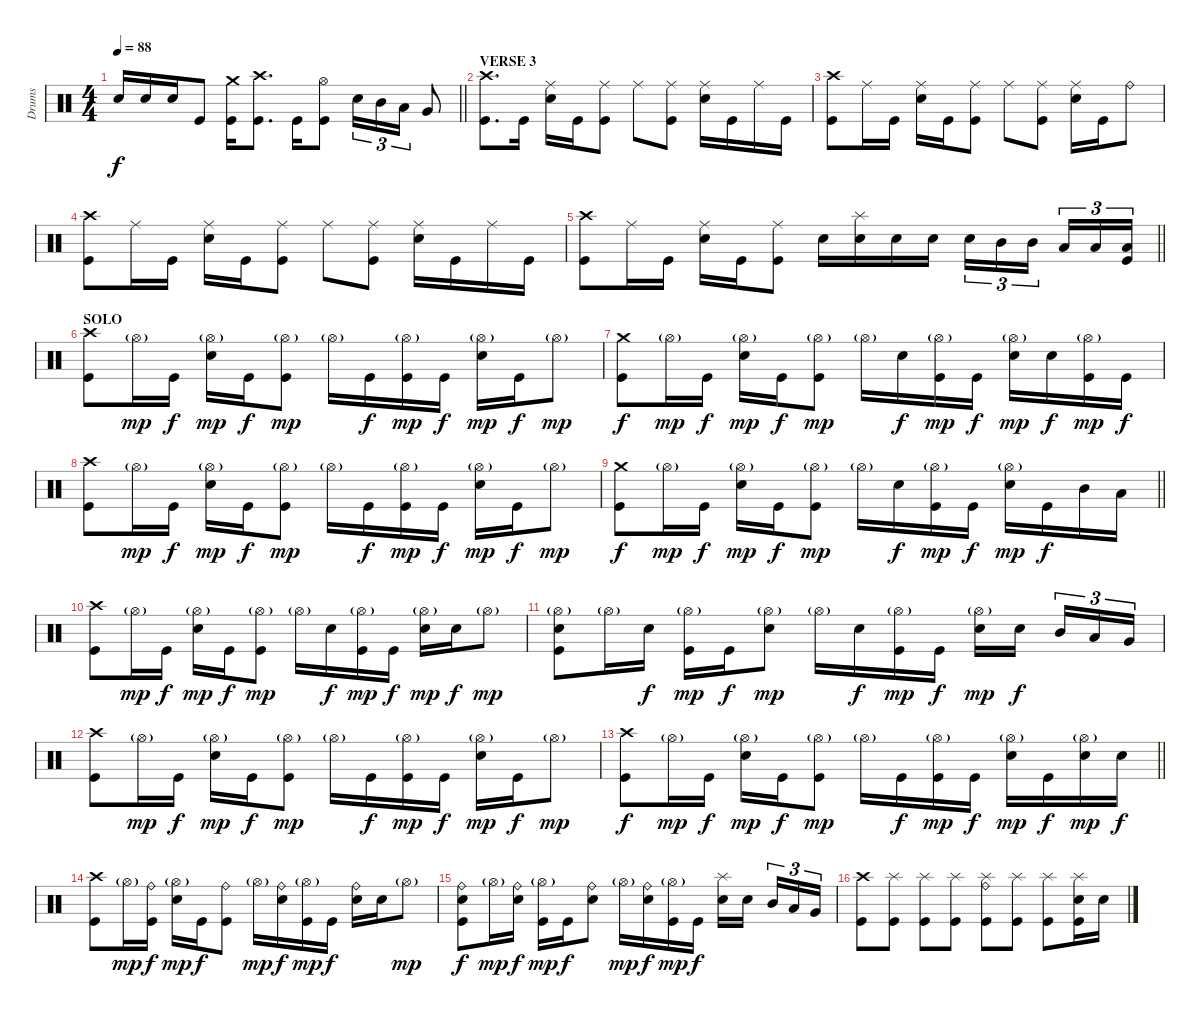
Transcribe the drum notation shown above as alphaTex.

\track ("Drums" "Drums") {instrument percussion}
\staff
\articulation defaults
\ts (4 4)
\tempo 88
\clef neutral
\barLineRight lightlight
\ks c "Electric Snare (hit)".16{dy f} "Electric Snare (hit)".16 "Electric Snare (hit)".16 "Kick (hit)".8
("Crash medium (hit)" "Kick (hit)").16 ("Crash high (hit)" "Kick (hit)").8{d} "Kick (hit)".16 ("Hi-Hat (open)" "Kick (hit)").8 "Electric Snare (hit)".16{tu (3 2)} "Mid Tom (hit)".16{tu (3 2)} "Low Tom (hit)".16{tu (3 2)} "Very Low Tom (hit)".8 |
\section ("" "VERSE 3")
("Crash high (hit)" "Kick (hit)").8{d} "Kick (hit)".16 ("Ride (middle)" "Electric Snare (hit)").16 "Kick (hit)".16 ("Ride (middle)" "Kick (hit)").8 "Ride (middle)".8 ("Ride (middle)" "Kick (hit)").8 ("Ride (middle)" "Electric Snare (hit)").16 "Kick (hit)".16 "Ride (middle)".16 "Kick (hit)".16 |
("Crash high (hit)" "Kick (hit)").8 "Ride (middle)".16 "Kick (hit)".16 ("Ride (middle)" "Electric Snare (hit)").16 "Kick (hit)".16 ("Ride (middle)" "Kick (hit)").8 "Ride (middle)".8 ("Ride (middle)" "Kick (hit)").8 ("Ride (middle)" "Electric Snare (hit)").16 "Kick (hit)".16 "Ride (bell)".8 |
("Crash high (hit)" "Kick (hit)").8 "Ride (middle)".16 "Kick (hit)".16 ("Ride (middle)" "Electric Snare (hit)").16 "Kick (hit)".16 ("Ride (middle)" "Kick (hit)").8 "Ride (middle)".8 ("Ride (middle)" "Kick (hit)").8 ("Ride (middle)" "Electric Snare (hit)").16 "Kick (hit)".16 "Ride (middle)".16 "Kick (hit)".16 |
\barLineRight lightlight
("Crash high (hit)" "Kick (hit)").8 "Ride (middle)".16 "Kick (hit)".16 ("Ride (middle)" "Electric Snare (hit)").16 "Kick (hit)".16 ("Ride (middle)" "Kick (hit)").8 "Electric Snare (hit)".16 ("Splash (hit)" "Electric Snare (hit)").16 "Electric Snare (hit)".16 "Electric Snare (hit)".16 "Electric Snare (hit)".16{tu (3 2)} "Mid Tom (hit)".16{tu (3 2)} "Mid Tom (hit)".16{tu (3 2) beam splitsecondary} "Low Tom (hit)".16{tu (3 2)} "Low Tom (hit)".16{tu (3 2)} ("Low Floor Tom (hit)" "Kick (hit)").16{tu (3 2)} |
\section ("" "SOLO")
("Crash high (hit)" "Kick (hit)").8 "Hi-Hat (open)"{g}.16{dy mp} "Kick (hit)".16{dy f} ("Hi-Hat (open)"{g} "Electric Snare (hit)").16{dy mp} "Kick (hit)".16{dy f} ("Hi-Hat (open)"{g} "Kick (hit)").8{dy mp} "Hi-Hat (open)"{g}.16 "Kick (hit)".16{dy f} ("Hi-Hat (open)"{g} "Kick (hit)").16{dy mp} "Kick (hit)".16{dy f} ("Hi-Hat (open)"{g} "Electric Snare (hit)").16{dy mp} "Kick (hit)".16{dy f} "Hi-Hat (open)"{g}.8{dy mp} |
("Crash medium (hit)" "Kick (hit)").8{dy f} "Hi-Hat (open)"{g}.16{dy mp} "Kick (hit)".16{dy f} ("Hi-Hat (open)"{g} "Electric Snare (hit)").16{dy mp} "Kick (hit)".16{dy f} ("Hi-Hat (open)"{g} "Kick (hit)").8{dy mp} "Hi-Hat (open)"{g}.16 "Electric Snare (hit)".16{dy f} ("Hi-Hat (open)"{g} "Kick (hit)").16{dy mp} "Kick (hit)".16{dy f} ("Hi-Hat (open)"{g} "Electric Snare (hit)").16{dy mp} "Electric Snare (hit)".16{dy f} ("Hi-Hat (open)"{g} "Kick (hit)").16{dy mp} "Kick (hit)".16{dy f} |
("Crash high (hit)" "Kick (hit)").8 "Hi-Hat (open)"{g}.16{dy mp} "Kick (hit)".16{dy f} ("Hi-Hat (open)"{g} "Electric Snare (hit)").16{dy mp} "Kick (hit)".16{dy f} ("Hi-Hat (open)"{g} "Kick (hit)").8{dy mp} "Hi-Hat (open)"{g}.16 "Kick (hit)".16{dy f} ("Hi-Hat (open)"{g} "Kick (hit)").16{dy mp} "Kick (hit)".16{dy f} ("Hi-Hat (open)"{g} "Electric Snare (hit)").16{dy mp} "Kick (hit)".16{dy f} "Hi-Hat (open)"{g}.8{dy mp} |
\barLineRight lightlight
("Crash medium (hit)" "Kick (hit)").8{dy f} "Hi-Hat (open)"{g}.16{dy mp} "Kick (hit)".16{dy f} ("Hi-Hat (open)"{g} "Electric Snare (hit)").16{dy mp} "Kick (hit)".16{dy f} ("Hi-Hat (open)"{g} "Kick (hit)").8{dy mp} "Hi-Hat (open)"{g}.16 "Electric Snare (hit)".16{dy f} ("Hi-Hat (open)"{g} "Kick (hit)").16{dy mp} "Kick (hit)".16{dy f} ("Hi-Hat (open)"{g} "Electric Snare (hit)").16{dy mp} "Kick (hit)".16{dy f} "Mid Tom (hit)".16 "Low Tom (hit)".16 |
("Crash high (hit)" "Kick (hit)").8 "Hi-Hat (open)"{g}.16{dy mp} "Kick (hit)".16{dy f} ("Hi-Hat (open)"{g} "Electric Snare (hit)").16{dy mp} "Kick (hit)".16{dy f} ("Hi-Hat (open)"{g} "Kick (hit)").8{dy mp} "Hi-Hat (open)"{g}.16 "Electric Snare (hit)".16{dy f} ("Hi-Hat (open)"{g} "Kick (hit)").16{dy mp} "Kick (hit)".16{dy f} ("Hi-Hat (open)"{g} "Electric Snare (hit)").16{dy mp} "Electric Snare (hit)".16{dy f} "Hi-Hat (open)"{g}.8{dy mp} |
("Hi-Hat (open)"{g} "Electric Snare (hit)" "Kick (hit)").8 "Hi-Hat (open)"{g}.16 "Electric Snare (hit)".16{dy f} ("Hi-Hat (open)"{g} "Kick (hit)").16{dy mp} "Kick (hit)".16{dy f} ("Hi-Hat (open)"{g} "Electric Snare (hit)").8{dy mp} "Hi-Hat (open)"{g}.16 "Electric Snare (hit)".16{dy f} ("Hi-Hat (open)"{g} "Kick (hit)").16{dy mp} "Kick (hit)".16{dy f} ("Hi-Hat (open)"{g} "Electric Snare (hit)").16{dy mp} "Electric Snare (hit)".16{dy f beam splitsecondary} "Mid Tom (hit)".16{tu (3 2)} "Low Tom (hit)".16{tu (3 2)} "Very Low Tom (hit)".16{tu (3 2)} |
("Crash high (hit)" "Kick (hit)").8 "Hi-Hat (open)"{g}.16{dy mp} "Kick (hit)".16{dy f} ("Hi-Hat (open)"{g} "Electric Snare (hit)").16{dy mp} "Kick (hit)".16{dy f} ("Hi-Hat (open)"{g} "Kick (hit)").8{dy mp} "Hi-Hat (open)"{g}.16 "Kick (hit)".16{dy f} ("Hi-Hat (open)"{g} "Kick (hit)").16{dy mp} "Kick (hit)".16{dy f} ("Hi-Hat (open)"{g} "Electric Snare (hit)").16{dy mp} "Kick (hit)".16{dy f} "Hi-Hat (open)"{g}.8{dy mp} |
\barLineRight lightlight
("Crash high (hit)" "Kick (hit)").8{dy f} "Hi-Hat (open)"{g}.16{dy mp} "Kick (hit)".16{dy f} ("Hi-Hat (open)"{g} "Electric Snare (hit)").16{dy mp} "Kick (hit)".16{dy f} ("Hi-Hat (open)"{g} "Kick (hit)").8{dy mp} "Hi-Hat (open)"{g}.16 "Kick (hit)".16{dy f} ("Hi-Hat (open)"{g} "Kick (hit)").16{dy mp} "Kick (hit)".16{dy f} ("Hi-Hat (open)"{g} "Electric Snare (hit)").16{dy mp} "Kick (hit)".16{dy f} ("Hi-Hat (open)"{g} "Electric Snare (hit)").16{dy mp} "Electric Snare (hit)".16{dy f} |
("Crash high (hit)" "Kick (hit)").8 "Hi-Hat (open)"{g}.16{dy mp} ("Ride (bell)" "Kick (hit)").16{dy f} ("Hi-Hat (open)"{g} "Electric Snare (hit)").16{dy mp} "Kick (hit)".16{dy f} ("Ride (bell)" "Kick (hit)").8 "Hi-Hat (open)"{g}.16{dy mp} ("Ride (bell)" "Electric Snare (hit)").16{dy f} ("Hi-Hat (open)"{g} "Kick (hit)").16{dy mp} "Kick (hit)".16{dy f} ("Ride (bell)" "Electric Snare (hit)").16 "Electric Snare (hit)".16 "Hi-Hat (open)"{g}.8{dy mp} |
("Ride (bell)" "Electric Snare (hit)" "Kick (hit)").8{dy f} "Hi-Hat (open)"{g}.16{dy mp} ("Ride (bell)" "Electric Snare (hit)").16{dy f} ("Hi-Hat (open)"{g} "Kick (hit)").16{dy mp} "Kick (hit)".16{dy f} ("Ride (bell)" "Electric Snare (hit)").8 "Hi-Hat (open)"{g}.16{dy mp} ("Ride (bell)" "Electric Snare (hit)").16{dy f} ("Hi-Hat (open)"{g} "Kick (hit)").16{dy mp} "Kick (hit)".16{dy f} ("Splash (hit)" "Electric Snare (hit)").16 "Electric Snare (hit)".16{beam splitsecondary} "Mid Tom (hit)".16{tu (3 2)} "Low Tom (hit)".16{tu (3 2)} "Very Low Tom (hit)".16{tu (3 2)} |
("Crash high (hit)" "Kick (hit)").8 ("Splash (hit)" "Kick (hit)").8 ("Splash (hit)" "Kick (hit)").8 ("Splash (hit)" "Kick (hit)").8 ("Splash (hit)" "Ride (bell)" "Kick (hit)").8 ("Splash (hit)" "Kick (hit)").8 ("Splash (hit)" "Kick (hit)").8 ("Splash (hit)" "Electric Snare (hit)" "Kick (hit)").16 "Electric Snare (hit)".16
